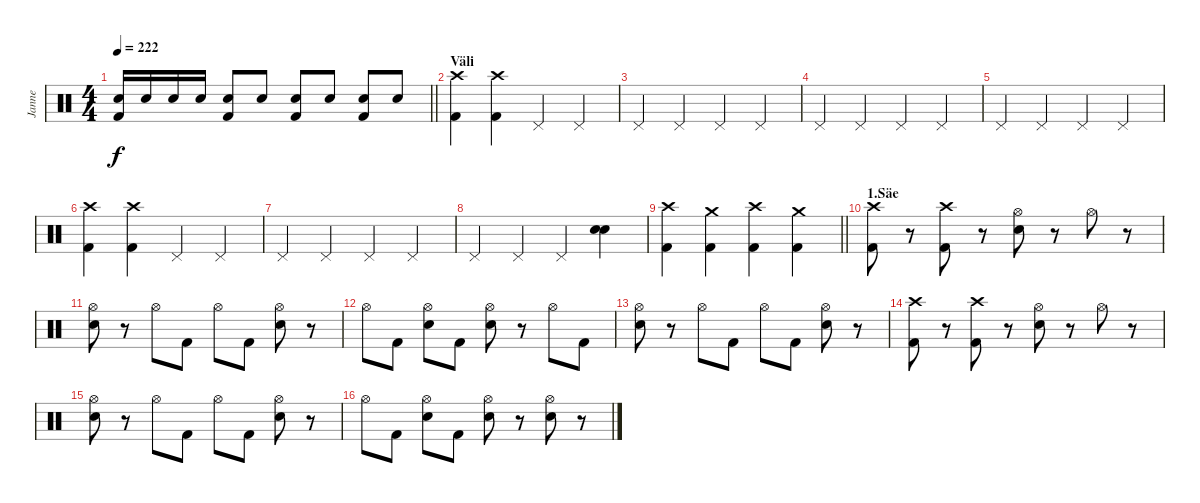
\track ("Janne" "Janne") {instrument percussion}
\staff {score}
\articulation defaults
\ts (4 4)
\tempo 222
\clef neutral
\barLineRight lightlight
\ks c
("Electric Snare (hit)" "Kick (hit) 2").16{dy f} "Electric Snare (hit)".16 "Electric Snare (hit)".16 "Electric Snare (hit)".16 ("Electric Snare (hit)" "Kick (hit) 2").8 "Electric Snare (hit)".8 ("Electric Snare (hit)" "Kick (hit) 2").8 "Electric Snare (hit)".8 ("Electric Snare (hit)" "Kick (hit) 2").8 "Electric Snare (hit)".8 |
\section ("" "Väli")
("Crash high (hit)" "Kick (hit) 2").4 ("Crash high (hit)" "Kick (hit) 2").4 "Pedal Hi-Hat (hit)".4 "Pedal Hi-Hat (hit)".4 |
"Pedal Hi-Hat (hit)".4 "Pedal Hi-Hat (hit)".4 "Pedal Hi-Hat (hit)".4 "Pedal Hi-Hat (hit)".4 |
"Pedal Hi-Hat (hit)".4 "Pedal Hi-Hat (hit)".4 "Pedal Hi-Hat (hit)".4 "Pedal Hi-Hat (hit)".4 |
"Pedal Hi-Hat (hit)".4 "Pedal Hi-Hat (hit)".4 "Pedal Hi-Hat (hit)".4 "Pedal Hi-Hat (hit)".4 |
("Crash high (hit)" "Kick (hit) 2").4 ("Crash high (hit)" "Kick (hit) 2").4 "Pedal Hi-Hat (hit)".4 "Pedal Hi-Hat (hit)".4 |
"Pedal Hi-Hat (hit)".4 "Pedal Hi-Hat (hit)".4 "Pedal Hi-Hat (hit)".4 "Pedal Hi-Hat (hit)".4 |
"Pedal Hi-Hat (hit)".4 "Pedal Hi-Hat (hit)".4 "Pedal Hi-Hat (hit)".4 ("Electric Snare (hit)" "Electric Snare (hit)").4 |
\barLineRight lightlight
("Crash high (hit)" "Kick (hit) 2").4 ("Crash medium (hit)" "Kick (hit) 2").4 ("Crash high (hit)" "Kick (hit) 2").4 ("Crash medium (hit)" "Kick (hit) 2").4 |
\section ("" "1.Säe")
("Crash high (hit)" "Kick (hit) 2").8 r.8 ("Crash high (hit)" "Kick (hit) 2").8 r.8 ("Hi-Hat (open)" "Electric Snare (hit)").8 r.8 "Hi-Hat (open)".8 r.8 |
("Hi-Hat (open)" "Electric Snare (hit)").8 r.8 "Hi-Hat (open)".8 "Kick (hit) 2".8 "Hi-Hat (open)".8 "Kick (hit) 2".8 ("Hi-Hat (open)" "Electric Snare (hit)").8 r.8 |
"Hi-Hat (open)".8 "Kick (hit) 2".8 ("Hi-Hat (open)" "Electric Snare (hit)").8 "Kick (hit) 2".8 ("Hi-Hat (open)" "Electric Snare (hit)").8 r.8 "Hi-Hat (open)".8 "Kick (hit) 2".8 |
("Hi-Hat (open)" "Electric Snare (hit)").8 r.8 "Hi-Hat (open)".8 "Kick (hit) 2".8 "Hi-Hat (open)".8 "Kick (hit) 2".8 ("Hi-Hat (open)" "Electric Snare (hit)").8 r.8 |
("Crash high (hit)" "Kick (hit) 2").8 r.8 ("Crash high (hit)" "Kick (hit) 2").8 r.8 ("Hi-Hat (open)" "Electric Snare (hit)").8 r.8 "Hi-Hat (open)".8 r.8 |
("Hi-Hat (open)" "Electric Snare (hit)").8 r.8 "Hi-Hat (open)".8 "Kick (hit) 2".8 "Hi-Hat (open)".8 "Kick (hit) 2".8 ("Hi-Hat (open)" "Electric Snare (hit)").8 r.8 |
"Hi-Hat (open)".8 "Kick (hit) 2".8 ("Hi-Hat (open)" "Electric Snare (hit)").8 "Kick (hit) 2".8 ("Hi-Hat (open)" "Electric Snare (hit)").8 r.8 ("Hi-Hat (open)" "Electric Snare (hit)").8 r.8
